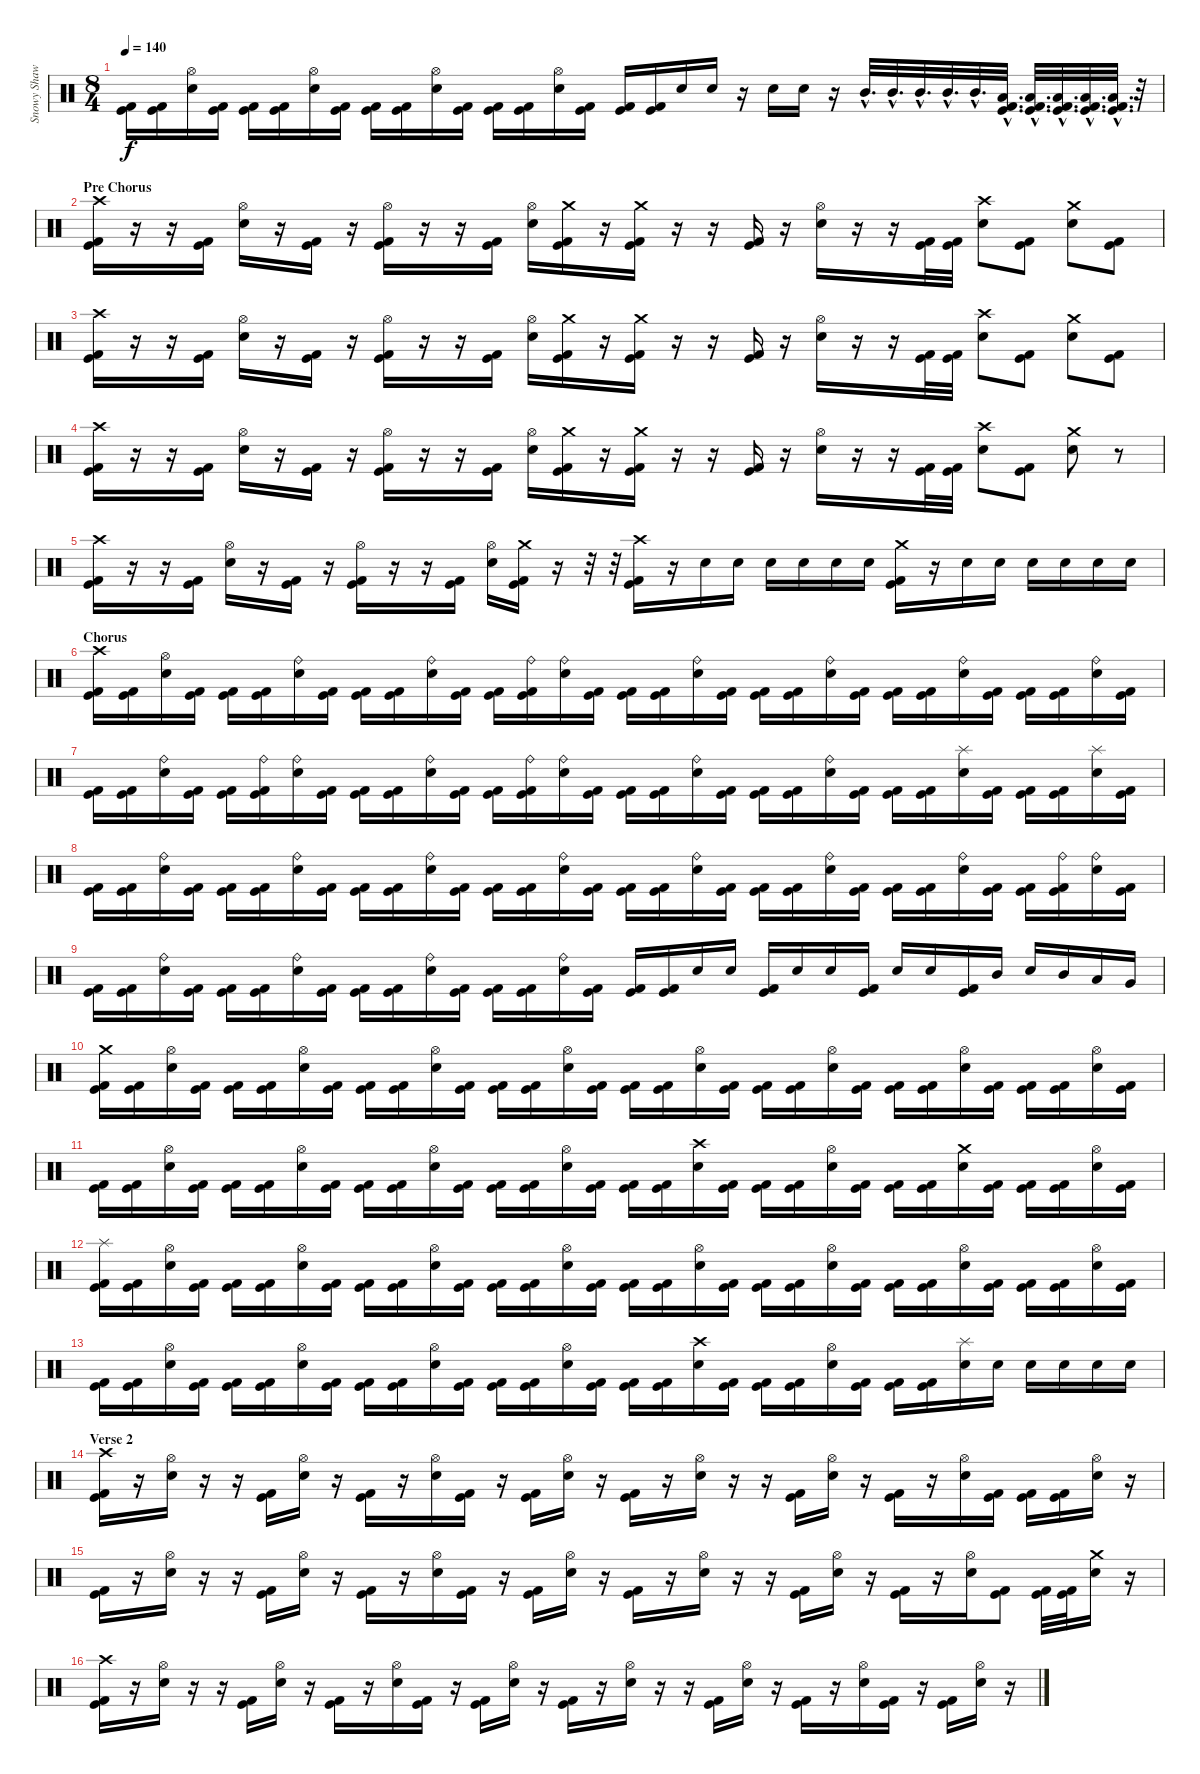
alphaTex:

\track ("Snowy Shaw" "Snowy Shaw") {instrument percussion}
\staff {score}
\articulation defaults
\ts (8 4)
\tempo 140
\clef neutral
\ks c
("Kick (hit)" "Kick (hit) 2").16{dy f} ("Kick (hit) 2" "Kick (hit)").16 ("Hi-Hat (open)" "Electric Snare (hit)").16 ("Kick (hit) 2" "Kick (hit)").16 ("Kick (hit) 2" "Kick (hit)").16 ("Kick (hit)" "Kick (hit) 2").16 ("Hi-Hat (open)" "Electric Snare (hit)").16 ("Kick (hit) 2" "Kick (hit)").16 ("Kick (hit)" "Kick (hit) 2").16 ("Kick (hit) 2" "Kick (hit)").16 ("Hi-Hat (open)" "Electric Snare (hit)").16 ("Kick (hit)" "Kick (hit) 2").16 ("Kick (hit) 2" "Kick (hit)").16 ("Kick (hit)" "Kick (hit) 2").16 ("Hi-Hat (open)" "Electric Snare (hit)").16 ("Kick (hit) 2" "Kick (hit)").16 ("Kick (hit)" "Kick (hit) 2").16 ("Kick (hit) 2" "Kick (hit)").16 "Electric Snare (hit)".16 "Electric Snare (hit)".16 r.16 "Electric Snare (hit)".16 "Electric Snare (hit)".16 r.16 "Mid Tom (hit)"{hac}.32{d} "Mid Tom (hit)"{hac}.32{d} "Mid Tom (hit)"{hac}.32{d} "Mid Tom (hit)"{hac}.32{d} "Mid Tom (hit)"{hac}.32{d} ("Low Tom (hit)"{hac} "Kick (hit) 2"{hac} "Kick (hit)"{hac}).32{d} ("Low Tom (hit)"{hac} "Kick (hit) 2"{hac} "Kick (hit)"{hac}).32{d} ("Low Tom (hit)"{hac} "Kick (hit) 2"{hac} "Kick (hit)"{hac}).32{d} ("Low Tom (hit)"{hac} "Kick (hit) 2"{hac} "Kick (hit)"{hac}).32{d} ("Low Tom (hit)"{hac} "Kick (hit) 2"{hac} "Kick (hit)"{hac}).32{d} r.32 |
\section ("" "Pre Chorus")
("Crash high (hit)" "Kick (hit) 2" "Kick (hit)").16 r.16 r.16 ("Kick (hit) 2" "Kick (hit)").16 ("Hi-Hat (open)" "Electric Snare (hit)").16 r.16 ("Kick (hit) 2" "Kick (hit)").16 r.16 ("Hi-Hat (open)" "Kick (hit) 2" "Kick (hit)").16 r.16 r.16 ("Kick (hit) 2" "Kick (hit)").16 ("Hi-Hat (open)" "Electric Snare (hit)").16 ("Crash medium (hit)" "Kick (hit) 2" "Kick (hit)").16 r.16 ("Crash medium (hit)" "Kick (hit) 2" "Kick (hit)").16 r.16 r.16 ("Kick (hit) 2" "Kick (hit)").16 r.16 ("Hi-Hat (open)" "Electric Snare (hit)").16 r.16 r.16 ("Kick (hit) 2" "Kick (hit)").32 ("Kick (hit) 2" "Kick (hit)").32 ("Crash high (hit)" "Electric Snare (hit)").8 ("Kick (hit) 2" "Kick (hit)").8 ("Crash medium (hit)" "Electric Snare (hit)").8 ("Kick (hit) 2" "Kick (hit)").8 |
("Crash high (hit)" "Kick (hit) 2" "Kick (hit)").16 r.16 r.16 ("Kick (hit) 2" "Kick (hit)").16 ("Hi-Hat (open)" "Electric Snare (hit)").16 r.16 ("Kick (hit) 2" "Kick (hit)").16 r.16 ("Hi-Hat (open)" "Kick (hit) 2" "Kick (hit)").16 r.16 r.16 ("Kick (hit) 2" "Kick (hit)").16 ("Hi-Hat (open)" "Electric Snare (hit)").16 ("Crash medium (hit)" "Kick (hit) 2" "Kick (hit)").16 r.16 ("Crash medium (hit)" "Kick (hit) 2" "Kick (hit)").16 r.16 r.16 ("Kick (hit) 2" "Kick (hit)").16 r.16 ("Hi-Hat (open)" "Electric Snare (hit)").16 r.16 r.16 ("Kick (hit) 2" "Kick (hit)").32 ("Kick (hit) 2" "Kick (hit)").32 ("Crash high (hit)" "Electric Snare (hit)").8 ("Kick (hit) 2" "Kick (hit)").8 ("Crash medium (hit)" "Electric Snare (hit)").8 ("Kick (hit) 2" "Kick (hit)").8 |
("Crash high (hit)" "Kick (hit) 2" "Kick (hit)").16 r.16 r.16 ("Kick (hit) 2" "Kick (hit)").16 ("Hi-Hat (open)" "Electric Snare (hit)").16 r.16 ("Kick (hit) 2" "Kick (hit)").16 r.16 ("Hi-Hat (open)" "Kick (hit) 2" "Kick (hit)").16 r.16 r.16 ("Kick (hit) 2" "Kick (hit)").16 ("Hi-Hat (open)" "Electric Snare (hit)").16 ("Crash medium (hit)" "Kick (hit) 2" "Kick (hit)").16 r.16 ("Crash medium (hit)" "Kick (hit) 2" "Kick (hit)").16 r.16 r.16 ("Kick (hit) 2" "Kick (hit)").16 r.16 ("Hi-Hat (open)" "Electric Snare (hit)").16 r.16 r.16 ("Kick (hit) 2" "Kick (hit)").32 ("Kick (hit) 2" "Kick (hit)").32 ("Crash high (hit)" "Electric Snare (hit)").8 ("Kick (hit) 2" "Kick (hit)").8 ("Crash medium (hit)" "Electric Snare (hit)").8 r.8 |
("Crash high (hit)" "Kick (hit) 2" "Kick (hit)").16 r.16 r.16 ("Kick (hit) 2" "Kick (hit)").16 ("Hi-Hat (open)" "Electric Snare (hit)").16 r.16 ("Kick (hit) 2" "Kick (hit)").16 r.16 ("Hi-Hat (open)" "Kick (hit) 2" "Kick (hit)").16 r.16 r.16 ("Kick (hit) 2" "Kick (hit)").16 ("Hi-Hat (open)" "Electric Snare (hit)").16 ("Crash medium (hit)" "Kick (hit) 2" "Kick (hit)").16 r.16 r.32 r.32 ("Crash high (hit)" "Kick (hit) 2" "Kick (hit)").16 r.16 "Electric Snare (hit)".16 "Electric Snare (hit)".16 "Electric Snare (hit)".16 "Electric Snare (hit)".16 "Electric Snare (hit)".16 "Electric Snare (hit)".16 ("Crash medium (hit)" "Kick (hit) 2" "Kick (hit)").16 r.16 "Electric Snare (hit)".16 "Electric Snare (hit)".16 "Electric Snare (hit)".16 "Electric Snare (hit)".16 "Electric Snare (hit)".16 "Electric Snare (hit)".16 |
\section ("" "Chorus")
("Crash high (hit)" "Kick (hit)" "Kick (hit) 2").16 ("Kick (hit)" "Kick (hit) 2").16 ("Hi-Hat (open)" "Electric Snare (hit)").16 ("Kick (hit)" "Kick (hit) 2").16 ("Kick (hit)" "Kick (hit) 2").16 ("Kick (hit)" "Kick (hit) 2").16 ("Ride (bell)" "Electric Snare (hit)").16 ("Kick (hit)" "Kick (hit) 2").16 ("Kick (hit)" "Kick (hit) 2").16 ("Kick (hit)" "Kick (hit) 2").16 ("Ride (bell)" "Electric Snare (hit)").16 ("Kick (hit)" "Kick (hit) 2").16 ("Kick (hit)" "Kick (hit) 2").16 ("Ride (bell)" "Kick (hit)" "Kick (hit) 2").16 ("Ride (bell)" "Electric Snare (hit)").16 ("Kick (hit)" "Kick (hit) 2").16 ("Kick (hit)" "Kick (hit) 2").16 ("Kick (hit)" "Kick (hit) 2").16 ("Ride (bell)" "Electric Snare (hit)").16 ("Kick (hit)" "Kick (hit) 2").16 ("Kick (hit)" "Kick (hit) 2").16 ("Kick (hit)" "Kick (hit) 2").16 ("Ride (bell)" "Electric Snare (hit)").16 ("Kick (hit)" "Kick (hit) 2").16 ("Kick (hit)" "Kick (hit) 2").16 ("Kick (hit)" "Kick (hit) 2").16 ("Ride (bell)" "Electric Snare (hit)").16 ("Kick (hit)" "Kick (hit) 2").16 ("Kick (hit)" "Kick (hit) 2").16 ("Kick (hit)" "Kick (hit) 2").16 ("Ride (bell)" "Electric Snare (hit)").16 ("Kick (hit)" "Kick (hit) 2").16 |
("Kick (hit)" "Kick (hit) 2").16 ("Kick (hit)" "Kick (hit) 2").16 ("Ride (bell)" "Electric Snare (hit)").16 ("Kick (hit)" "Kick (hit) 2").16 ("Kick (hit)" "Kick (hit) 2").16 ("Ride (bell)" "Kick (hit)" "Kick (hit) 2").16 ("Ride (bell)" "Electric Snare (hit)").16 ("Kick (hit)" "Kick (hit) 2").16 ("Kick (hit)" "Kick (hit) 2").16 ("Kick (hit)" "Kick (hit) 2").16 ("Ride (bell)" "Electric Snare (hit)").16 ("Kick (hit)" "Kick (hit) 2").16 ("Kick (hit)" "Kick (hit) 2").16 ("Ride (bell)" "Kick (hit)" "Kick (hit) 2").16 ("Ride (bell)" "Electric Snare (hit)").16 ("Kick (hit)" "Kick (hit) 2").16 ("Kick (hit)" "Kick (hit) 2").16 ("Kick (hit)" "Kick (hit) 2").16 ("Ride (bell)" "Electric Snare (hit)").16 ("Kick (hit)" "Kick (hit) 2").16 ("Kick (hit)" "Kick (hit) 2").16 ("Kick (hit)" "Kick (hit) 2").16 ("Ride (bell)" "Electric Snare (hit)").16 ("Kick (hit)" "Kick (hit) 2").16 ("Kick (hit)" "Kick (hit) 2").16 ("Kick (hit)" "Kick (hit) 2").16 ("Splash (hit)" "Electric Snare (hit)").16 ("Kick (hit)" "Kick (hit) 2").16 ("Kick (hit)" "Kick (hit) 2").16 ("Kick (hit)" "Kick (hit) 2").16 ("Splash (hit)" "Electric Snare (hit)").16 ("Kick (hit)" "Kick (hit) 2").16 |
("Kick (hit)" "Kick (hit) 2").16 ("Kick (hit)" "Kick (hit) 2").16 ("Ride (bell)" "Electric Snare (hit)").16 ("Kick (hit)" "Kick (hit) 2").16 ("Kick (hit)" "Kick (hit) 2").16 ("Kick (hit)" "Kick (hit) 2").16 ("Ride (bell)" "Electric Snare (hit)").16 ("Kick (hit)" "Kick (hit) 2").16 ("Kick (hit)" "Kick (hit) 2").16 ("Kick (hit)" "Kick (hit) 2").16 ("Ride (bell)" "Electric Snare (hit)").16 ("Kick (hit)" "Kick (hit) 2").16 ("Kick (hit)" "Kick (hit) 2").16 ("Kick (hit)" "Kick (hit) 2").16 ("Ride (bell)" "Electric Snare (hit)").16 ("Kick (hit)" "Kick (hit) 2").16 ("Kick (hit)" "Kick (hit) 2").16 ("Kick (hit)" "Kick (hit) 2").16 ("Ride (bell)" "Electric Snare (hit)").16 ("Kick (hit)" "Kick (hit) 2").16 ("Kick (hit)" "Kick (hit) 2").16 ("Kick (hit)" "Kick (hit) 2").16 ("Ride (bell)" "Electric Snare (hit)").16 ("Kick (hit)" "Kick (hit) 2").16 ("Kick (hit)" "Kick (hit) 2").16 ("Kick (hit)" "Kick (hit) 2").16 ("Ride (bell)" "Electric Snare (hit)").16 ("Kick (hit)" "Kick (hit) 2").16 ("Kick (hit)" "Kick (hit) 2").16 ("Ride (bell)" "Kick (hit)" "Kick (hit) 2").16 ("Ride (bell)" "Electric Snare (hit)").16 ("Kick (hit)" "Kick (hit) 2").16 |
("Kick (hit)" "Kick (hit) 2").16 ("Kick (hit)" "Kick (hit) 2").16 ("Ride (bell)" "Electric Snare (hit)").16 ("Kick (hit)" "Kick (hit) 2").16 ("Kick (hit)" "Kick (hit) 2").16 ("Kick (hit)" "Kick (hit) 2").16 ("Ride (bell)" "Electric Snare (hit)").16 ("Kick (hit)" "Kick (hit) 2").16 ("Kick (hit)" "Kick (hit) 2").16 ("Kick (hit)" "Kick (hit) 2").16 ("Ride (bell)" "Electric Snare (hit)").16 ("Kick (hit)" "Kick (hit) 2").16 ("Kick (hit)" "Kick (hit) 2").16 ("Kick (hit)" "Kick (hit) 2").16 ("Ride (bell)" "Electric Snare (hit)").16 ("Kick (hit)" "Kick (hit) 2").16 ("Kick (hit)" "Kick (hit) 2").16 ("Kick (hit)" "Kick (hit) 2").16 "Electric Snare (hit)".16 "Electric Snare (hit)".16 ("Kick (hit)" "Kick (hit) 2").16 "Electric Snare (hit)".16 "Electric Snare (hit)".16 ("Kick (hit)" "Kick (hit) 2").16 "Electric Snare (hit)".16 "Electric Snare (hit)".16 ("Kick (hit) 2" "Kick (hit)").16 "Mid Tom (hit)".16 "Electric Snare (hit)".16 "Mid Tom (hit)".16 "Low Tom (hit)".16 "Very Low Tom (hit)".16 |
("Crash medium (hit)" "Kick (hit)" "Kick (hit) 2").16 ("Kick (hit)" "Kick (hit) 2").16 ("Hi-Hat (open)" "Electric Snare (hit)").16 ("Kick (hit)" "Kick (hit) 2").16 ("Kick (hit)" "Kick (hit) 2").16 ("Kick (hit)" "Kick (hit) 2").16 ("Hi-Hat (open)" "Electric Snare (hit)").16 ("Kick (hit)" "Kick (hit) 2").16 ("Kick (hit)" "Kick (hit) 2").16 ("Kick (hit)" "Kick (hit) 2").16 ("Hi-Hat (open)" "Electric Snare (hit)").16 ("Kick (hit)" "Kick (hit) 2").16 ("Kick (hit)" "Kick (hit) 2").16 ("Kick (hit)" "Kick (hit) 2").16 ("Hi-Hat (open)" "Electric Snare (hit)").16 ("Kick (hit)" "Kick (hit) 2").16 ("Kick (hit)" "Kick (hit) 2").16 ("Kick (hit)" "Kick (hit) 2").16 ("Hi-Hat (open)" "Electric Snare (hit)").16 ("Kick (hit)" "Kick (hit) 2").16 ("Kick (hit)" "Kick (hit) 2").16 ("Kick (hit)" "Kick (hit) 2").16 ("Hi-Hat (open)" "Electric Snare (hit)").16 ("Kick (hit)" "Kick (hit) 2").16 ("Kick (hit)" "Kick (hit) 2").16 ("Kick (hit)" "Kick (hit) 2").16 ("Hi-Hat (open)" "Electric Snare (hit)").16 ("Kick (hit)" "Kick (hit) 2").16 ("Kick (hit)" "Kick (hit) 2").16 ("Kick (hit)" "Kick (hit) 2").16 ("Hi-Hat (open)" "Electric Snare (hit)").16 ("Kick (hit)" "Kick (hit) 2").16 |
("Kick (hit)" "Kick (hit) 2").16 ("Kick (hit)" "Kick (hit) 2").16 ("Hi-Hat (open)" "Electric Snare (hit)").16 ("Kick (hit)" "Kick (hit) 2").16 ("Kick (hit)" "Kick (hit) 2").16 ("Kick (hit)" "Kick (hit) 2").16 ("Hi-Hat (open)" "Electric Snare (hit)").16 ("Kick (hit)" "Kick (hit) 2").16 ("Kick (hit)" "Kick (hit) 2").16 ("Kick (hit)" "Kick (hit) 2").16 ("Hi-Hat (open)" "Electric Snare (hit)").16 ("Kick (hit)" "Kick (hit) 2").16 ("Kick (hit)" "Kick (hit) 2").16 ("Kick (hit)" "Kick (hit) 2").16 ("Hi-Hat (open)" "Electric Snare (hit)").16 ("Kick (hit)" "Kick (hit) 2").16 ("Kick (hit)" "Kick (hit) 2").16 ("Kick (hit)" "Kick (hit) 2").16 ("Crash high (hit)" "Electric Snare (hit)").16 ("Kick (hit)" "Kick (hit) 2").16 ("Kick (hit)" "Kick (hit) 2").16 ("Kick (hit)" "Kick (hit) 2").16 ("Hi-Hat (open)" "Electric Snare (hit)").16 ("Kick (hit)" "Kick (hit) 2").16 ("Kick (hit)" "Kick (hit) 2").16 ("Kick (hit)" "Kick (hit) 2").16 ("Crash medium (hit)" "Electric Snare (hit)").16 ("Kick (hit)" "Kick (hit) 2").16 ("Kick (hit)" "Kick (hit) 2").16 ("Kick (hit)" "Kick (hit) 2").16 ("Hi-Hat (open)" "Electric Snare (hit)").16 ("Kick (hit)" "Kick (hit) 2").16 |
("Splash (hit)" "Kick (hit)" "Kick (hit) 2").16 ("Kick (hit)" "Kick (hit) 2").16 ("Hi-Hat (open)" "Electric Snare (hit)").16 ("Kick (hit)" "Kick (hit) 2").16 ("Kick (hit)" "Kick (hit) 2").16 ("Kick (hit)" "Kick (hit) 2").16 ("Hi-Hat (open)" "Electric Snare (hit)").16 ("Kick (hit)" "Kick (hit) 2").16 ("Kick (hit)" "Kick (hit) 2").16 ("Kick (hit)" "Kick (hit) 2").16 ("Hi-Hat (open)" "Electric Snare (hit)").16 ("Kick (hit)" "Kick (hit) 2").16 ("Kick (hit)" "Kick (hit) 2").16 ("Kick (hit)" "Kick (hit) 2").16 ("Hi-Hat (open)" "Electric Snare (hit)").16 ("Kick (hit)" "Kick (hit) 2").16 ("Kick (hit)" "Kick (hit) 2").16 ("Kick (hit)" "Kick (hit) 2").16 ("Hi-Hat (open)" "Electric Snare (hit)").16 ("Kick (hit)" "Kick (hit) 2").16 ("Kick (hit)" "Kick (hit) 2").16 ("Kick (hit)" "Kick (hit) 2").16 ("Hi-Hat (open)" "Electric Snare (hit)").16 ("Kick (hit)" "Kick (hit) 2").16 ("Kick (hit)" "Kick (hit) 2").16 ("Kick (hit)" "Kick (hit) 2").16 ("Hi-Hat (open)" "Electric Snare (hit)").16 ("Kick (hit)" "Kick (hit) 2").16 ("Kick (hit)" "Kick (hit) 2").16 ("Kick (hit)" "Kick (hit) 2").16 ("Hi-Hat (open)" "Electric Snare (hit)").16 ("Kick (hit)" "Kick (hit) 2").16 |
("Kick (hit)" "Kick (hit) 2").16 ("Kick (hit)" "Kick (hit) 2").16 ("Hi-Hat (open)" "Electric Snare (hit)").16 ("Kick (hit)" "Kick (hit) 2").16 ("Kick (hit)" "Kick (hit) 2").16 ("Kick (hit)" "Kick (hit) 2").16 ("Hi-Hat (open)" "Electric Snare (hit)").16 ("Kick (hit)" "Kick (hit) 2").16 ("Kick (hit)" "Kick (hit) 2").16 ("Kick (hit)" "Kick (hit) 2").16 ("Hi-Hat (open)" "Electric Snare (hit)").16 ("Kick (hit)" "Kick (hit) 2").16 ("Kick (hit)" "Kick (hit) 2").16 ("Kick (hit)" "Kick (hit) 2").16 ("Hi-Hat (open)" "Electric Snare (hit)").16 ("Kick (hit)" "Kick (hit) 2").16 ("Kick (hit)" "Kick (hit) 2").16 ("Kick (hit)" "Kick (hit) 2").16 ("Crash high (hit)" "Electric Snare (hit)").16 ("Kick (hit)" "Kick (hit) 2").16 ("Kick (hit)" "Kick (hit) 2").16 ("Kick (hit)" "Kick (hit) 2").16 ("Hi-Hat (open)" "Electric Snare (hit)").16 ("Kick (hit)" "Kick (hit) 2").16 ("Kick (hit)" "Kick (hit) 2").16 ("Kick (hit)" "Kick (hit) 2").16 ("Splash (hit)" "Electric Snare (hit)").16 "Electric Snare (hit)".16 "Electric Snare (hit)".16 "Electric Snare (hit)".16 "Electric Snare (hit)".16 "Electric Snare (hit)".16 |
\section ("" "Verse 2")
("Crash high (hit)" "Kick (hit)" "Kick (hit) 2").16 r.16 ("Hi-Hat (open)" "Electric Snare (hit)").16 r.16 r.16 ("Kick (hit)" "Kick (hit) 2").16 ("Hi-Hat (open)" "Electric Snare (hit)").16 r.16 ("Kick (hit)" "Kick (hit) 2").16 r.16 ("Hi-Hat (open)" "Electric Snare (hit)").16 ("Kick (hit)" "Kick (hit) 2").16 r.16 ("Kick (hit)" "Kick (hit) 2").16 ("Hi-Hat (open)" "Electric Snare (hit)").16 r.16 ("Kick (hit)" "Kick (hit) 2").16 r.16 ("Hi-Hat (open)" "Electric Snare (hit)").16 r.16 r.16 ("Kick (hit)" "Kick (hit) 2").16 ("Hi-Hat (open)" "Electric Snare (hit)").16 r.16 ("Kick (hit)" "Kick (hit) 2").16 r.16 ("Hi-Hat (open)" "Electric Snare (hit)").16 ("Kick (hit)" "Kick (hit) 2").16 ("Kick (hit) 2" "Kick (hit)").16 ("Kick (hit)" "Kick (hit) 2").16 ("Hi-Hat (open)" "Electric Snare (hit)").16 r.16 |
("Kick (hit)" "Kick (hit) 2").16 r.16 ("Hi-Hat (open)" "Electric Snare (hit)").16 r.16 r.16 ("Kick (hit)" "Kick (hit) 2").16 ("Hi-Hat (open)" "Electric Snare (hit)").16 r.16 ("Kick (hit)" "Kick (hit) 2").16 r.16 ("Hi-Hat (open)" "Electric Snare (hit)").16 ("Kick (hit)" "Kick (hit) 2").16 r.16 ("Kick (hit)" "Kick (hit) 2").16 ("Hi-Hat (open)" "Electric Snare (hit)").16 r.16 ("Kick (hit)" "Kick (hit) 2").16 r.16 ("Hi-Hat (open)" "Electric Snare (hit)").16 r.16 r.16 ("Kick (hit)" "Kick (hit) 2").16 ("Hi-Hat (open)" "Electric Snare (hit)").16 r.16 ("Kick (hit)" "Kick (hit) 2").16 r.16 ("Hi-Hat (open)" "Electric Snare (hit)").16 ("Kick (hit)" "Kick (hit) 2").8 ("Kick (hit) 2" "Kick (hit)").32 ("Kick (hit)" "Kick (hit) 2").32 ("Crash medium (hit)" "Electric Snare (hit)").16 r.16 |
("Crash high (hit)" "Kick (hit)" "Kick (hit) 2").16 r.16 ("Hi-Hat (open)" "Electric Snare (hit)").16 r.16 r.16 ("Kick (hit)" "Kick (hit) 2").16 ("Hi-Hat (open)" "Electric Snare (hit)").16 r.16 ("Kick (hit)" "Kick (hit) 2").16 r.16 ("Hi-Hat (open)" "Electric Snare (hit)").16 ("Kick (hit)" "Kick (hit) 2").16 r.16 ("Kick (hit)" "Kick (hit) 2").16 ("Hi-Hat (open)" "Electric Snare (hit)").16 r.16 ("Kick (hit)" "Kick (hit) 2").16 r.16 ("Hi-Hat (open)" "Electric Snare (hit)").16 r.16 r.16 ("Kick (hit)" "Kick (hit) 2").16 ("Hi-Hat (open)" "Electric Snare (hit)").16 r.16 ("Kick (hit)" "Kick (hit) 2").16 r.16 ("Hi-Hat (open)" "Electric Snare (hit)").16 ("Kick (hit)" "Kick (hit) 2").16 r.16 ("Kick (hit)" "Kick (hit) 2").16 ("Hi-Hat (open)" "Electric Snare (hit)").16 r.16
